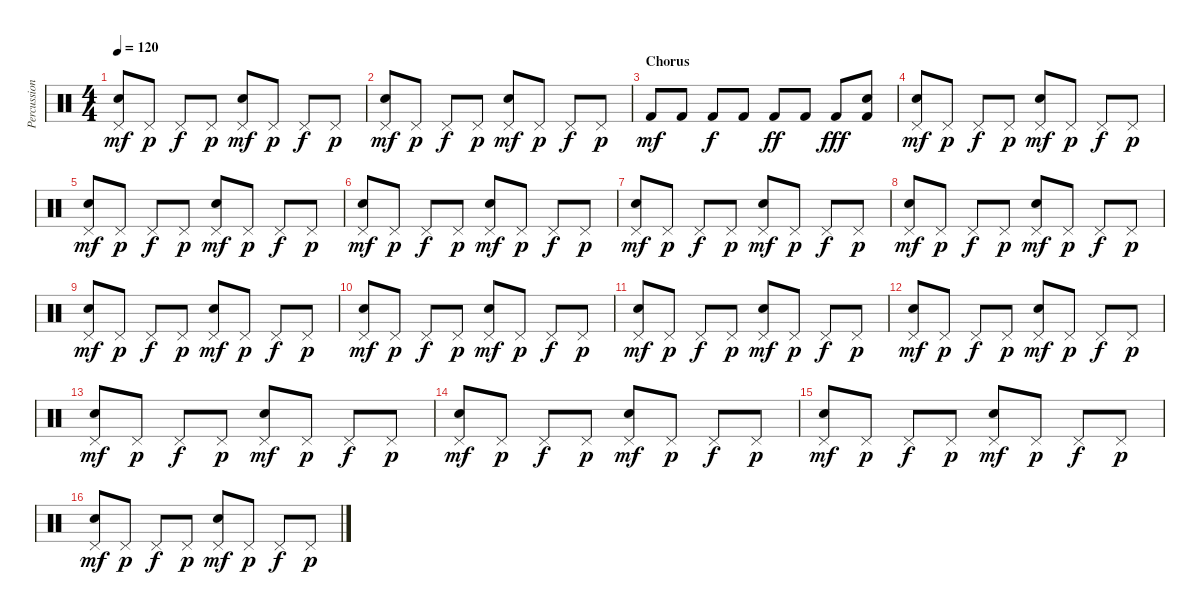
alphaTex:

\track ("Percussions" "Percussion") {instrument percussion}
\staff {score}
\articulation defaults
\ts (4 4)
\tempo 120
\clef neutral
\ks c
("Pedal Hi-Hat (hit)" "Hand Clap (hit)").8{dy mf} "Pedal Hi-Hat (hit)".8{dy p} "Pedal Hi-Hat (hit)".8{dy f} "Pedal Hi-Hat (hit)".8{dy p} ("Pedal Hi-Hat (hit)" "Hand Clap (hit)").8{dy mf} "Pedal Hi-Hat (hit)".8{dy p} "Pedal Hi-Hat (hit)".8{dy f} "Pedal Hi-Hat (hit)".8{dy p} |
("Pedal Hi-Hat (hit)" "Hand Clap (hit)").8{dy mf} "Pedal Hi-Hat (hit)".8{dy p} "Pedal Hi-Hat (hit)".8{dy f} "Pedal Hi-Hat (hit)".8{dy p} ("Pedal Hi-Hat (hit)" "Hand Clap (hit)").8{dy mf} "Pedal Hi-Hat (hit)".8{dy p} "Pedal Hi-Hat (hit)".8{dy f} "Pedal Hi-Hat (hit)".8{dy p} |
\section ("" "Chorus")
"Kick (hit) 2".8{dy mf} "Kick (hit) 2".8 "Kick (hit) 2".8{dy f} "Kick (hit) 2".8 "Kick (hit) 2".8{dy ff} "Kick (hit) 2".8 "Kick (hit) 2".8{dy fff} ("Kick (hit) 2" "Electric Snare (hit)").8 |
("Pedal Hi-Hat (hit)" "Hand Clap (hit)").8{dy mf} "Pedal Hi-Hat (hit)".8{dy p} "Pedal Hi-Hat (hit)".8{dy f} "Pedal Hi-Hat (hit)".8{dy p} ("Pedal Hi-Hat (hit)" "Hand Clap (hit)").8{dy mf} "Pedal Hi-Hat (hit)".8{dy p} "Pedal Hi-Hat (hit)".8{dy f} "Pedal Hi-Hat (hit)".8{dy p} |
("Pedal Hi-Hat (hit)" "Hand Clap (hit)").8{dy mf} "Pedal Hi-Hat (hit)".8{dy p} "Pedal Hi-Hat (hit)".8{dy f} "Pedal Hi-Hat (hit)".8{dy p} ("Pedal Hi-Hat (hit)" "Hand Clap (hit)").8{dy mf} "Pedal Hi-Hat (hit)".8{dy p} "Pedal Hi-Hat (hit)".8{dy f} "Pedal Hi-Hat (hit)".8{dy p} |
("Pedal Hi-Hat (hit)" "Hand Clap (hit)").8{dy mf} "Pedal Hi-Hat (hit)".8{dy p} "Pedal Hi-Hat (hit)".8{dy f} "Pedal Hi-Hat (hit)".8{dy p} ("Pedal Hi-Hat (hit)" "Hand Clap (hit)").8{dy mf} "Pedal Hi-Hat (hit)".8{dy p} "Pedal Hi-Hat (hit)".8{dy f} "Pedal Hi-Hat (hit)".8{dy p} |
("Pedal Hi-Hat (hit)" "Hand Clap (hit)").8{dy mf} "Pedal Hi-Hat (hit)".8{dy p} "Pedal Hi-Hat (hit)".8{dy f} "Pedal Hi-Hat (hit)".8{dy p} ("Pedal Hi-Hat (hit)" "Hand Clap (hit)").8{dy mf} "Pedal Hi-Hat (hit)".8{dy p} "Pedal Hi-Hat (hit)".8{dy f} "Pedal Hi-Hat (hit)".8{dy p} |
("Pedal Hi-Hat (hit)" "Hand Clap (hit)").8{dy mf} "Pedal Hi-Hat (hit)".8{dy p} "Pedal Hi-Hat (hit)".8{dy f} "Pedal Hi-Hat (hit)".8{dy p} ("Pedal Hi-Hat (hit)" "Hand Clap (hit)").8{dy mf} "Pedal Hi-Hat (hit)".8{dy p} "Pedal Hi-Hat (hit)".8{dy f} "Pedal Hi-Hat (hit)".8{dy p} |
("Pedal Hi-Hat (hit)" "Hand Clap (hit)").8{dy mf} "Pedal Hi-Hat (hit)".8{dy p} "Pedal Hi-Hat (hit)".8{dy f} "Pedal Hi-Hat (hit)".8{dy p} ("Pedal Hi-Hat (hit)" "Hand Clap (hit)").8{dy mf} "Pedal Hi-Hat (hit)".8{dy p} "Pedal Hi-Hat (hit)".8{dy f} "Pedal Hi-Hat (hit)".8{dy p} |
("Pedal Hi-Hat (hit)" "Hand Clap (hit)").8{dy mf} "Pedal Hi-Hat (hit)".8{dy p} "Pedal Hi-Hat (hit)".8{dy f} "Pedal Hi-Hat (hit)".8{dy p} ("Pedal Hi-Hat (hit)" "Hand Clap (hit)").8{dy mf} "Pedal Hi-Hat (hit)".8{dy p} "Pedal Hi-Hat (hit)".8{dy f} "Pedal Hi-Hat (hit)".8{dy p} |
("Pedal Hi-Hat (hit)" "Hand Clap (hit)").8{dy mf} "Pedal Hi-Hat (hit)".8{dy p} "Pedal Hi-Hat (hit)".8{dy f} "Pedal Hi-Hat (hit)".8{dy p} ("Pedal Hi-Hat (hit)" "Hand Clap (hit)").8{dy mf} "Pedal Hi-Hat (hit)".8{dy p} "Pedal Hi-Hat (hit)".8{dy f} "Pedal Hi-Hat (hit)".8{dy p} |
("Pedal Hi-Hat (hit)" "Hand Clap (hit)").8{dy mf} "Pedal Hi-Hat (hit)".8{dy p} "Pedal Hi-Hat (hit)".8{dy f} "Pedal Hi-Hat (hit)".8{dy p} ("Pedal Hi-Hat (hit)" "Hand Clap (hit)").8{dy mf} "Pedal Hi-Hat (hit)".8{dy p} "Pedal Hi-Hat (hit)".8{dy f} "Pedal Hi-Hat (hit)".8{dy p} |
("Pedal Hi-Hat (hit)" "Hand Clap (hit)").8{dy mf} "Pedal Hi-Hat (hit)".8{dy p} "Pedal Hi-Hat (hit)".8{dy f} "Pedal Hi-Hat (hit)".8{dy p} ("Pedal Hi-Hat (hit)" "Hand Clap (hit)").8{dy mf} "Pedal Hi-Hat (hit)".8{dy p} "Pedal Hi-Hat (hit)".8{dy f} "Pedal Hi-Hat (hit)".8{dy p} |
("Pedal Hi-Hat (hit)" "Hand Clap (hit)").8{dy mf} "Pedal Hi-Hat (hit)".8{dy p} "Pedal Hi-Hat (hit)".8{dy f} "Pedal Hi-Hat (hit)".8{dy p} ("Pedal Hi-Hat (hit)" "Hand Clap (hit)").8{dy mf} "Pedal Hi-Hat (hit)".8{dy p} "Pedal Hi-Hat (hit)".8{dy f} "Pedal Hi-Hat (hit)".8{dy p} |
("Pedal Hi-Hat (hit)" "Hand Clap (hit)").8{dy mf} "Pedal Hi-Hat (hit)".8{dy p} "Pedal Hi-Hat (hit)".8{dy f} "Pedal Hi-Hat (hit)".8{dy p} ("Pedal Hi-Hat (hit)" "Hand Clap (hit)").8{dy mf} "Pedal Hi-Hat (hit)".8{dy p} "Pedal Hi-Hat (hit)".8{dy f} "Pedal Hi-Hat (hit)".8{dy p} |
("Pedal Hi-Hat (hit)" "Hand Clap (hit)").8{dy mf} "Pedal Hi-Hat (hit)".8{dy p} "Pedal Hi-Hat (hit)".8{dy f} "Pedal Hi-Hat (hit)".8{dy p} ("Pedal Hi-Hat (hit)" "Hand Clap (hit)").8{dy mf} "Pedal Hi-Hat (hit)".8{dy p} "Pedal Hi-Hat (hit)".8{dy f} "Pedal Hi-Hat (hit)".8{dy p}
